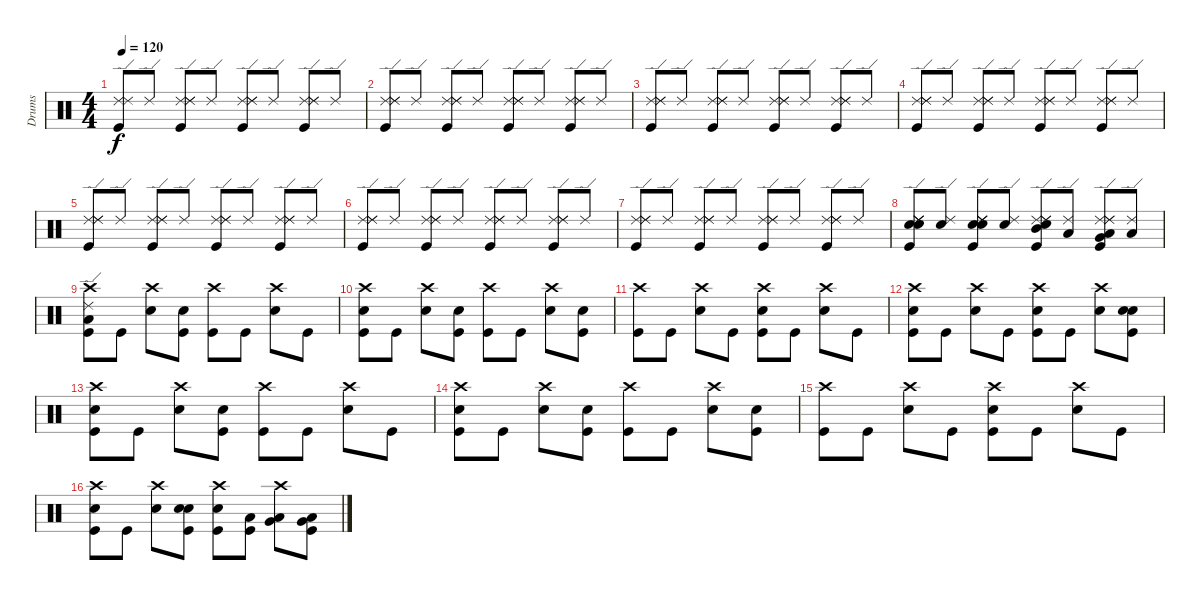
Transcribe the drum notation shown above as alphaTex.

\track ("Drums" "Drums") {instrument percussion}
\staff {score}
\articulation defaults
\ts (4 4)
\tempo 120
\clef neutral
\ks c
("Kick (hit)" "Ride (edge) 2" "Ride (edge) 2").8{dy f} "Ride (edge) 2".8 ("Ride (edge) 2" "Kick (hit)" "Ride (edge) 2" "Ride (edge) 2").8 "Ride (edge) 2".8 ("Ride (edge) 2" "Ride (edge) 2" "Kick (hit)" "Ride (edge) 2").8 "Ride (edge) 2".8 ("Ride (edge) 2" "Kick (hit)" "Ride (edge) 2" "Ride (edge) 2").8 "Ride (edge) 2".8 |
("Ride (edge) 2" "Kick (hit)" "Ride (edge) 2" "Ride (edge) 2").8 "Ride (edge) 2".8 ("Ride (edge) 2" "Ride (edge) 2" "Kick (hit)" "Ride (edge) 2").8 "Ride (edge) 2".8 ("Ride (edge) 2" "Ride (edge) 2" "Kick (hit)" "Ride (edge) 2").8 "Ride (edge) 2".8 ("Ride (edge) 2" "Ride (edge) 2" "Kick (hit)" "Ride (edge) 2").8 "Ride (edge) 2".8 |
("Ride (edge) 2" "Ride (edge) 2" "Kick (hit)" "Ride (edge) 2").8 "Ride (edge) 2".8 ("Ride (edge) 2" "Kick (hit)" "Ride (edge) 2" "Ride (edge) 2").8 "Ride (edge) 2".8 ("Ride (edge) 2" "Ride (edge) 2" "Kick (hit)" "Ride (edge) 2").8 "Ride (edge) 2".8 ("Ride (edge) 2" "Kick (hit)" "Ride (edge) 2" "Ride (edge) 2").8 "Ride (edge) 2".8 |
("Ride (edge) 2" "Kick (hit)" "Ride (edge) 2" "Ride (edge) 2").8 "Ride (edge) 2".8 ("Ride (edge) 2" "Ride (edge) 2" "Kick (hit)" "Ride (edge) 2").8 "Ride (edge) 2".8 ("Ride (edge) 2" "Ride (edge) 2" "Kick (hit)" "Ride (edge) 2").8 "Ride (edge) 2".8 ("Ride (edge) 2" "Ride (edge) 2" "Kick (hit)" "Ride (edge) 2").8 "Ride (edge) 2".8 |
("Ride (edge) 2" "Ride (edge) 2" "Kick (hit)" "Ride (edge) 2").8 "Ride (edge) 2".8 ("Ride (edge) 2" "Kick (hit)" "Ride (edge) 2" "Ride (edge) 2").8 "Ride (edge) 2".8 ("Ride (edge) 2" "Ride (edge) 2" "Kick (hit)" "Ride (edge) 2").8 "Ride (edge) 2".8 ("Ride (edge) 2" "Kick (hit)" "Ride (edge) 2" "Ride (edge) 2").8 "Ride (edge) 2".8 |
("Ride (edge) 2" "Kick (hit)" "Ride (edge) 2" "Ride (edge) 2").8 "Ride (edge) 2".8 ("Ride (edge) 2" "Ride (edge) 2" "Kick (hit)" "Ride (edge) 2").8 "Ride (edge) 2".8 ("Ride (edge) 2" "Ride (edge) 2" "Kick (hit)" "Ride (edge) 2").8 "Ride (edge) 2".8 ("Ride (edge) 2" "Ride (edge) 2" "Kick (hit)" "Ride (edge) 2").8 "Ride (edge) 2".8 |
("Ride (edge) 2" "Ride (edge) 2" "Kick (hit)" "Ride (edge) 2").8 "Ride (edge) 2".8 ("Ride (edge) 2" "Kick (hit)" "Ride (edge) 2" "Ride (edge) 2").8 "Ride (edge) 2".8 ("Ride (edge) 2" "Ride (edge) 2" "Kick (hit)" "Ride (edge) 2").8 "Ride (edge) 2".8 ("Ride (edge) 2" "Kick (hit)" "Ride (edge) 2" "Ride (edge) 2").8 "Ride (edge) 2".8 |
("Ride (edge) 2" "Kick (hit)" "Ride (edge) 2" "Electric Snare (hit)" "Ride (edge) 2" "Electric Snare (hit)").8 ("Ride (edge) 2" "Electric Snare (hit)").8 ("Ride (edge) 2" "Electric Snare (hit)" "Ride (edge) 2" "Electric Snare (hit)" "Kick (hit)" "Ride (edge) 2").8 ("Electric Snare (hit)" "Ride (edge) 2").8 ("Electric Snare (hit)" "Ride (edge) 2" "Ride (edge) 2" "Mid Tom (hit)" "Kick (hit)" "Ride (edge) 2").8 ("Ride (edge) 2" "Low Tom (hit)").8 ("Ride (edge) 2" "Low Tom (hit)" "Ride (edge) 2" "Very Low Tom (hit)" "Kick (hit)" "Ride (edge) 2").8 ("Ride (edge) 2" "Low Floor Tom (hit)").8 |
("Ride (edge) 2" "Low Floor Tom (hit)" "Kick (hit)" "Crash high (hit)").8 "Kick (hit)".8 ("Electric Snare (hit)" "Crash high (hit)").8 ("Kick (hit)" "Electric Snare (hit)").8 ("Crash high (hit)" "Kick (hit)").8 "Kick (hit)".8 ("Crash high (hit)" "Electric Snare (hit)").8 "Kick (hit)".8 |
("Electric Snare (hit)" "Crash high (hit)" "Kick (hit)").8 "Kick (hit)".8 ("Crash high (hit)" "Electric Snare (hit)").8 ("Kick (hit)" "Electric Snare (hit)").8 ("Crash high (hit)" "Kick (hit)").8 "Kick (hit)".8 ("Crash high (hit)" "Electric Snare (hit)").8 ("Kick (hit)" "Electric Snare (hit)").8 |
("Crash high (hit)" "Kick (hit)").8 "Kick (hit)".8 ("Crash high (hit)" "Electric Snare (hit)").8 "Kick (hit)".8 ("Electric Snare (hit)" "Crash high (hit)" "Kick (hit)").8 "Kick (hit)".8 ("Crash high (hit)" "Electric Snare (hit)").8 "Kick (hit)".8 |
("Electric Snare (hit)" "Crash high (hit)" "Kick (hit)").8 "Kick (hit)".8 ("Crash high (hit)" "Electric Snare (hit)").8 "Kick (hit)".8 ("Electric Snare (hit)" "Crash high (hit)" "Kick (hit)").8 "Kick (hit)".8 ("Crash high (hit)" "Electric Snare (hit)").8 ("Kick (hit)" "Electric Snare (hit)" "Electric Snare (hit)").8 |
("Electric Snare (hit)" "Crash high (hit)" "Kick (hit)").8 "Kick (hit)".8 ("Electric Snare (hit)" "Crash high (hit)").8 ("Kick (hit)" "Electric Snare (hit)").8 ("Crash high (hit)" "Kick (hit)").8 "Kick (hit)".8 ("Crash high (hit)" "Electric Snare (hit)").8 "Kick (hit)".8 |
("Electric Snare (hit)" "Crash high (hit)" "Kick (hit)").8 "Kick (hit)".8 ("Crash high (hit)" "Electric Snare (hit)").8 ("Kick (hit)" "Electric Snare (hit)").8 ("Crash high (hit)" "Kick (hit)").8 "Kick (hit)".8 ("Crash high (hit)" "Electric Snare (hit)").8 ("Kick (hit)" "Electric Snare (hit)").8 |
("Crash high (hit)" "Kick (hit)").8 "Kick (hit)".8 ("Crash high (hit)" "Electric Snare (hit)").8 "Kick (hit)".8 ("Electric Snare (hit)" "Crash high (hit)" "Kick (hit)").8 "Kick (hit)".8 ("Crash high (hit)" "Electric Snare (hit)").8 "Kick (hit)".8 |
("Electric Snare (hit)" "Crash high (hit)" "Kick (hit)").8 "Kick (hit)".8 ("Crash high (hit)" "Electric Snare (hit)").8 ("Kick (hit)" "Electric Snare (hit)" "Electric Snare (hit)").8 ("Electric Snare (hit)" "Crash high (hit)" "Kick (hit)").8 ("Kick (hit)" "Low Tom (hit)").8 ("Low Tom (hit)" "Crash high (hit)" "Very Low Tom (hit)").8 ("Kick (hit)" "Very Low Tom (hit)" "Low Floor Tom (hit)").8
